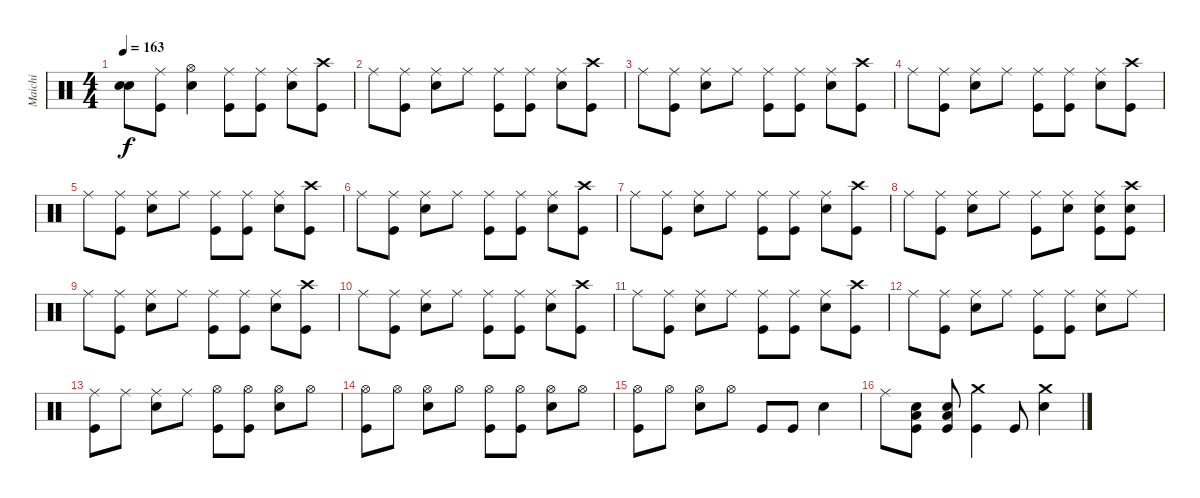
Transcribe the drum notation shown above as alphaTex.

\track ("Maichi" "Maichi") {instrument percussion}
\staff {score}
\articulation defaults
\ts (4 4)
\tempo 163
\clef neutral
\ks c
("Snare (hit)"{t} "Snare (hit)"{t}).8{dy f} ("Kick (hit)" "Ride (middle)").8 ("Electric Snare (hit)" "Hi-Hat (open)").4 ("Ride (middle)" "Kick (hit)").8 ("Kick (hit)" "Ride (middle)").8 ("Ride (middle)" "Electric Snare (hit)").8 ("Crash high (hit)" "Kick (hit)").8 |
"Ride (middle)".8 ("Ride (middle)" "Kick (hit)").8 ("Ride (middle)" "Electric Snare (hit)").8 "Ride (middle)".8 ("Kick (hit)" "Ride (middle)").8 ("Kick (hit)" "Ride (middle)").8 ("Ride (middle)" "Electric Snare (hit)").8 ("Crash high (hit)" "Kick (hit)").8 |
"Ride (middle)".8 ("Ride (middle)" "Kick (hit)").8 ("Ride (middle)" "Electric Snare (hit)").8 "Ride (middle)".8 ("Ride (middle)" "Kick (hit)").8 ("Kick (hit)" "Ride (middle)").8 ("Electric Snare (hit)" "Ride (middle)").8 ("Kick (hit)" "Crash high (hit)").8 |
"Ride (middle)".8 ("Ride (middle)" "Kick (hit)").8 ("Ride (middle)" "Electric Snare (hit)").8 "Ride (middle)".8 ("Kick (hit)" "Ride (middle)").8 ("Ride (middle)" "Kick (hit)").8 ("Electric Snare (hit)" "Ride (middle)").8 ("Kick (hit)" "Crash high (hit)").8 |
"Ride (middle)".8 ("Ride (middle)" "Kick (hit)").8 ("Electric Snare (hit)" "Ride (middle)").8 "Ride (middle)".8 ("Kick (hit)" "Ride (middle)").8 ("Kick (hit)" "Ride (middle)").8 ("Electric Snare (hit)" "Ride (middle)").8 ("Kick (hit)" "Crash high (hit)").8 |
"Ride (middle)".8 ("Ride (middle)" "Kick (hit)").8 ("Ride (middle)" "Electric Snare (hit)").8 "Ride (middle)".8 ("Kick (hit)" "Ride (middle)").8 ("Kick (hit)" "Ride (middle)").8 ("Ride (middle)" "Electric Snare (hit)").8 ("Kick (hit)" "Crash high (hit)").8 |
"Ride (middle)".8 ("Kick (hit)" "Ride (middle)").8 ("Ride (middle)" "Electric Snare (hit)").8 "Ride (middle)".8 ("Ride (middle)" "Kick (hit)").8 ("Kick (hit)" "Ride (middle)").8 ("Electric Snare (hit)" "Ride (middle)").8 ("Crash high (hit)" "Kick (hit)").8 |
"Ride (middle)".8 ("Kick (hit)" "Ride (middle)").8 ("Ride (middle)" "Electric Snare (hit)").8 "Ride (middle)".8 ("Ride (middle)" "Kick (hit)").8 ("Electric Snare (hit)" "Ride (middle)").8 ("Ride (middle)" "Electric Snare (hit)" "Kick (hit)").8 ("Electric Snare (hit)" "Crash high (hit)" "Kick (hit)").8 |
"Ride (middle)".8 ("Ride (middle)" "Kick (hit)").8 ("Ride (middle)" "Electric Snare (hit)").8 "Ride (middle)".8 ("Kick (hit)" "Ride (middle)").8 ("Ride (middle)" "Kick (hit)").8 ("Electric Snare (hit)" "Ride (middle)").8 ("Kick (hit)" "Crash high (hit)").8 |
"Ride (middle)".8 ("Ride (middle)" "Kick (hit)").8 ("Electric Snare (hit)" "Ride (middle)").8 "Ride (middle)".8 ("Kick (hit)" "Ride (middle)").8 ("Ride (middle)" "Kick (hit)").8 ("Ride (middle)" "Electric Snare (hit)").8 ("Kick (hit)" "Crash high (hit)").8 |
"Ride (middle)".8 ("Kick (hit)" "Ride (middle)").8 ("Ride (middle)" "Electric Snare (hit)").8 "Ride (middle)".8 ("Kick (hit)" "Ride (middle)").8 ("Ride (middle)" "Kick (hit)").8 ("Electric Snare (hit)" "Ride (middle)").8 ("Kick (hit)" "Crash high (hit)").8 |
"Ride (middle)".8 ("Kick (hit)" "Ride (middle)").8 ("Ride (middle)" "Electric Snare (hit)").8 "Ride (middle)".8 ("Kick (hit)" "Ride (middle)").8 ("Kick (hit)" "Ride (middle)").8 ("Electric Snare (hit)" "Ride (middle)").8 "Ride (middle)".8 |
("Ride (middle)" "Kick (hit)").8 "Ride (middle)".8 ("Ride (middle)" "Electric Snare (hit)").8 "Ride (middle)".8 ("Hi-Hat (open)" "Kick (hit)").8 ("Kick (hit)" "Hi-Hat (open)").8 ("Electric Snare (hit)" "Hi-Hat (open)").8 "Hi-Hat (open)".8 |
("Kick (hit)" "Hi-Hat (open)").8 "Hi-Hat (open)".8 ("Hi-Hat (open)" "Electric Snare (hit)").8 "Hi-Hat (open)".8 ("Hi-Hat (open)" "Kick (hit)").8 ("Hi-Hat (open)" "Kick (hit)").8 ("Electric Snare (hit)" "Hi-Hat (open)").8 "Hi-Hat (open)".8 |
("Hi-Hat (open)" "Kick (hit)").8 "Hi-Hat (open)".8 ("Hi-Hat (open)" "Electric Snare (hit)").8 "Hi-Hat (open)".8 "Kick (hit)".8 "Kick (hit)".8 "Electric Snare (hit)".4 |
"Ride (middle)".8 ("Kick (hit)" "Electric Snare (hit)" "Low Tom (hit)").8 ("Low Tom (hit)" "Kick (hit)" "Electric Snare (hit)").8 ("Crash medium (hit)" "Kick (hit)").4 "Kick (hit)".8 ("Electric Snare (hit)" "Crash medium (hit)").4
